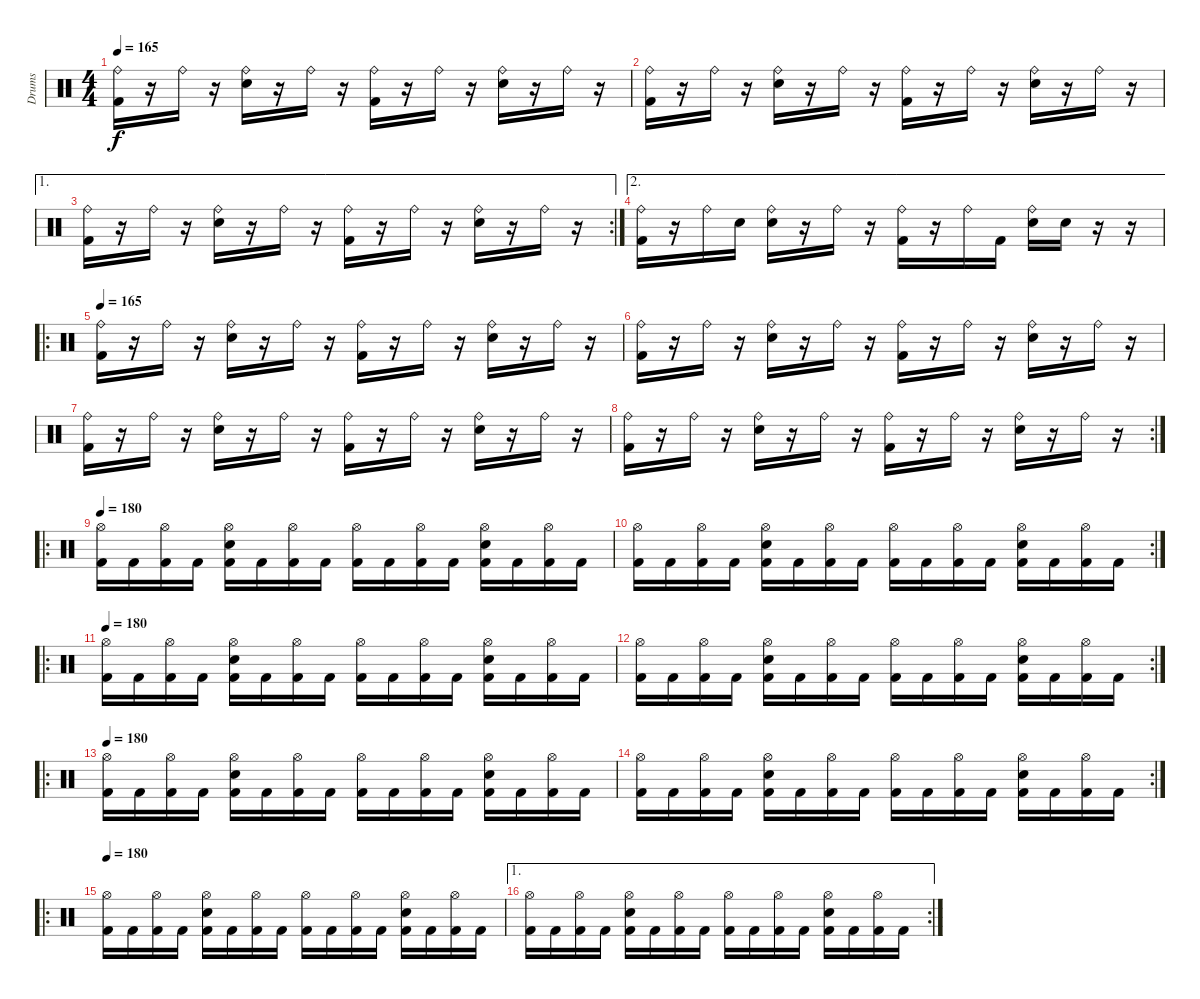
\track ("Drums" "Drums") {instrument percussion}
\staff {score}
\articulation defaults
\ts (4 4)
\tempo 165
\clef neutral
\ks c
("Ride (bell)" "Kick (hit) 2").16{dy f} r.16 "Ride (bell)".16 r.16 ("Ride (bell)" "Snare (hit) 2").16 r.16 "Ride (bell)".16 r.16 ("Ride (bell)" "Kick (hit) 2").16 r.16 "Ride (bell)".16 r.16 ("Ride (bell)" "Snare (hit) 2").16 r.16 "Ride (bell)".16 r.16 |
("Ride (bell)" "Kick (hit) 2").16 r.16 "Ride (bell)".16 r.16 ("Ride (bell)" "Snare (hit) 2").16 r.16 "Ride (bell)".16 r.16 ("Ride (bell)" "Kick (hit) 2").16 r.16 "Ride (bell)".16 r.16 ("Ride (bell)" "Snare (hit) 2").16 r.16 "Ride (bell)".16 r.16 |
\ae 1
\rc 2
("Ride (bell)" "Kick (hit) 2").16 r.16 "Ride (bell)".16 r.16 ("Ride (bell)" "Snare (hit) 2").16 r.16 "Ride (bell)".16 r.16 ("Ride (bell)" "Kick (hit) 2").16 r.16 "Ride (bell)".16 r.16 ("Ride (bell)" "Snare (hit) 2").16 r.16 "Ride (bell)".16 r.16 |
\ae 2
("Ride (bell)" "Kick (hit) 2").16 r.16 "Ride (bell)".16 "Snare (hit) 2".16 ("Ride (bell)" "Snare (hit) 2").16 r.16 "Ride (bell)".16 r.16 ("Ride (bell)" "Kick (hit) 2").16 r.16 "Ride (bell)".16 "Kick (hit) 2".16 ("Ride (bell)" "Snare (hit) 2").16 "Snare (hit) 2".16 r.16 r.16 |
\ro
\tempo 165
("Ride (bell)" "Kick (hit) 2").16 r.16 "Ride (bell)".16 r.16 ("Ride (bell)" "Snare (hit) 2").16 r.16 "Ride (bell)".16 r.16 ("Ride (bell)" "Kick (hit) 2").16 r.16 "Ride (bell)".16 r.16 ("Ride (bell)" "Snare (hit) 2").16 r.16 "Ride (bell)".16 r.16 |
("Ride (bell)" "Kick (hit) 2").16 r.16 "Ride (bell)".16 r.16 ("Ride (bell)" "Snare (hit) 2").16 r.16 "Ride (bell)".16 r.16 ("Ride (bell)" "Kick (hit) 2").16 r.16 "Ride (bell)".16 r.16 ("Ride (bell)" "Snare (hit) 2").16 r.16 "Ride (bell)".16 r.16 |
("Ride (bell)" "Kick (hit) 2").16 r.16 "Ride (bell)".16 r.16 ("Ride (bell)" "Snare (hit) 2").16 r.16 "Ride (bell)".16 r.16 ("Ride (bell)" "Kick (hit) 2").16 r.16 "Ride (bell)".16 r.16 ("Ride (bell)" "Snare (hit) 2").16 r.16 "Ride (bell)".16 r.16 |
\rc 2
("Ride (bell)" "Kick (hit) 2").16 r.16 "Ride (bell)".16 r.16 ("Ride (bell)" "Snare (hit) 2").16 r.16 "Ride (bell)".16 r.16 ("Ride (bell)" "Kick (hit) 2").16 r.16 "Ride (bell)".16 r.16 ("Ride (bell)" "Snare (hit) 2").16 r.16 "Ride (bell)".16 r.16 |
\ro
\tempo 180
("Hi-Hat (open)" "Kick (hit) 2").16 "Kick (hit) 2".16 ("Hi-Hat (open)" "Kick (hit) 2").16 "Kick (hit) 2".16 ("Hi-Hat (open)" "Snare (hit) 2" "Kick (hit) 2").16 "Kick (hit) 2".16 ("Hi-Hat (open)" "Kick (hit) 2").16 "Kick (hit) 2".16 ("Hi-Hat (open)" "Kick (hit) 2").16 "Kick (hit) 2".16 ("Hi-Hat (open)" "Kick (hit) 2").16 "Kick (hit) 2".16 ("Hi-Hat (open)" "Snare (hit) 2" "Kick (hit) 2").16 "Kick (hit) 2".16 ("Hi-Hat (open)" "Kick (hit) 2").16 "Kick (hit) 2".16 |
\rc 2
("Hi-Hat (open)" "Kick (hit) 2").16 "Kick (hit) 2".16 ("Hi-Hat (open)" "Kick (hit) 2").16 "Kick (hit) 2".16 ("Hi-Hat (open)" "Snare (hit) 2" "Kick (hit) 2").16 "Kick (hit) 2".16 ("Hi-Hat (open)" "Kick (hit) 2").16 "Kick (hit) 2".16 ("Hi-Hat (open)" "Kick (hit) 2").16 "Kick (hit) 2".16 ("Hi-Hat (open)" "Kick (hit) 2").16 "Kick (hit) 2".16 ("Hi-Hat (open)" "Snare (hit) 2" "Kick (hit) 2").16 "Kick (hit) 2".16 ("Hi-Hat (open)" "Kick (hit) 2").16 "Kick (hit) 2".16 |
\ro
\tempo 180
("Hi-Hat (open)" "Kick (hit) 2").16 "Kick (hit) 2".16 ("Hi-Hat (open)" "Kick (hit) 2").16 "Kick (hit) 2".16 ("Hi-Hat (open)" "Snare (hit) 2" "Kick (hit) 2").16 "Kick (hit) 2".16 ("Hi-Hat (open)" "Kick (hit) 2").16 "Kick (hit) 2".16 ("Hi-Hat (open)" "Kick (hit) 2").16 "Kick (hit) 2".16 ("Hi-Hat (open)" "Kick (hit) 2").16 "Kick (hit) 2".16 ("Hi-Hat (open)" "Snare (hit) 2" "Kick (hit) 2").16 "Kick (hit) 2".16 ("Hi-Hat (open)" "Kick (hit) 2").16 "Kick (hit) 2".16 |
\rc 2
("Hi-Hat (open)" "Kick (hit) 2").16 "Kick (hit) 2".16 ("Hi-Hat (open)" "Kick (hit) 2").16 "Kick (hit) 2".16 ("Hi-Hat (open)" "Snare (hit) 2" "Kick (hit) 2").16 "Kick (hit) 2".16 ("Hi-Hat (open)" "Kick (hit) 2").16 "Kick (hit) 2".16 ("Hi-Hat (open)" "Kick (hit) 2").16 "Kick (hit) 2".16 ("Hi-Hat (open)" "Kick (hit) 2").16 "Kick (hit) 2".16 ("Hi-Hat (open)" "Snare (hit) 2" "Kick (hit) 2").16 "Kick (hit) 2".16 ("Hi-Hat (open)" "Kick (hit) 2").16 "Kick (hit) 2".16 |
\ro
\tempo 180
("Hi-Hat (open)" "Kick (hit) 2").16 "Kick (hit) 2".16 ("Hi-Hat (open)" "Kick (hit) 2").16 "Kick (hit) 2".16 ("Hi-Hat (open)" "Snare (hit) 2" "Kick (hit) 2").16 "Kick (hit) 2".16 ("Hi-Hat (open)" "Kick (hit) 2").16 "Kick (hit) 2".16 ("Hi-Hat (open)" "Kick (hit) 2").16 "Kick (hit) 2".16 ("Hi-Hat (open)" "Kick (hit) 2").16 "Kick (hit) 2".16 ("Hi-Hat (open)" "Snare (hit) 2" "Kick (hit) 2").16 "Kick (hit) 2".16 ("Hi-Hat (open)" "Kick (hit) 2").16 "Kick (hit) 2".16 |
\rc 2
("Hi-Hat (open)" "Kick (hit) 2").16 "Kick (hit) 2".16 ("Hi-Hat (open)" "Kick (hit) 2").16 "Kick (hit) 2".16 ("Hi-Hat (open)" "Snare (hit) 2" "Kick (hit) 2").16 "Kick (hit) 2".16 ("Hi-Hat (open)" "Kick (hit) 2").16 "Kick (hit) 2".16 ("Hi-Hat (open)" "Kick (hit) 2").16 "Kick (hit) 2".16 ("Hi-Hat (open)" "Kick (hit) 2").16 "Kick (hit) 2".16 ("Hi-Hat (open)" "Snare (hit) 2" "Kick (hit) 2").16 "Kick (hit) 2".16 ("Hi-Hat (open)" "Kick (hit) 2").16 "Kick (hit) 2".16 |
\ro
\tempo 180
("Hi-Hat (open)" "Kick (hit) 2").16 "Kick (hit) 2".16 ("Hi-Hat (open)" "Kick (hit) 2").16 "Kick (hit) 2".16 ("Hi-Hat (open)" "Snare (hit) 2" "Kick (hit) 2").16 "Kick (hit) 2".16 ("Hi-Hat (open)" "Kick (hit) 2").16 "Kick (hit) 2".16 ("Hi-Hat (open)" "Kick (hit) 2").16 "Kick (hit) 2".16 ("Hi-Hat (open)" "Kick (hit) 2").16 "Kick (hit) 2".16 ("Hi-Hat (open)" "Snare (hit) 2" "Kick (hit) 2").16 "Kick (hit) 2".16 ("Hi-Hat (open)" "Kick (hit) 2").16 "Kick (hit) 2".16 |
\ae 1
\rc 2
("Hi-Hat (open)" "Kick (hit) 2").16 "Kick (hit) 2".16 ("Hi-Hat (open)" "Kick (hit) 2").16 "Kick (hit) 2".16 ("Hi-Hat (open)" "Snare (hit) 2" "Kick (hit) 2").16 "Kick (hit) 2".16 ("Hi-Hat (open)" "Kick (hit) 2").16 "Kick (hit) 2".16 ("Hi-Hat (open)" "Kick (hit) 2").16 "Kick (hit) 2".16 ("Hi-Hat (open)" "Kick (hit) 2").16 "Kick (hit) 2".16 ("Hi-Hat (open)" "Snare (hit) 2" "Kick (hit) 2").16 "Kick (hit) 2".16 ("Hi-Hat (open)" "Kick (hit) 2").16 "Kick (hit) 2".16
